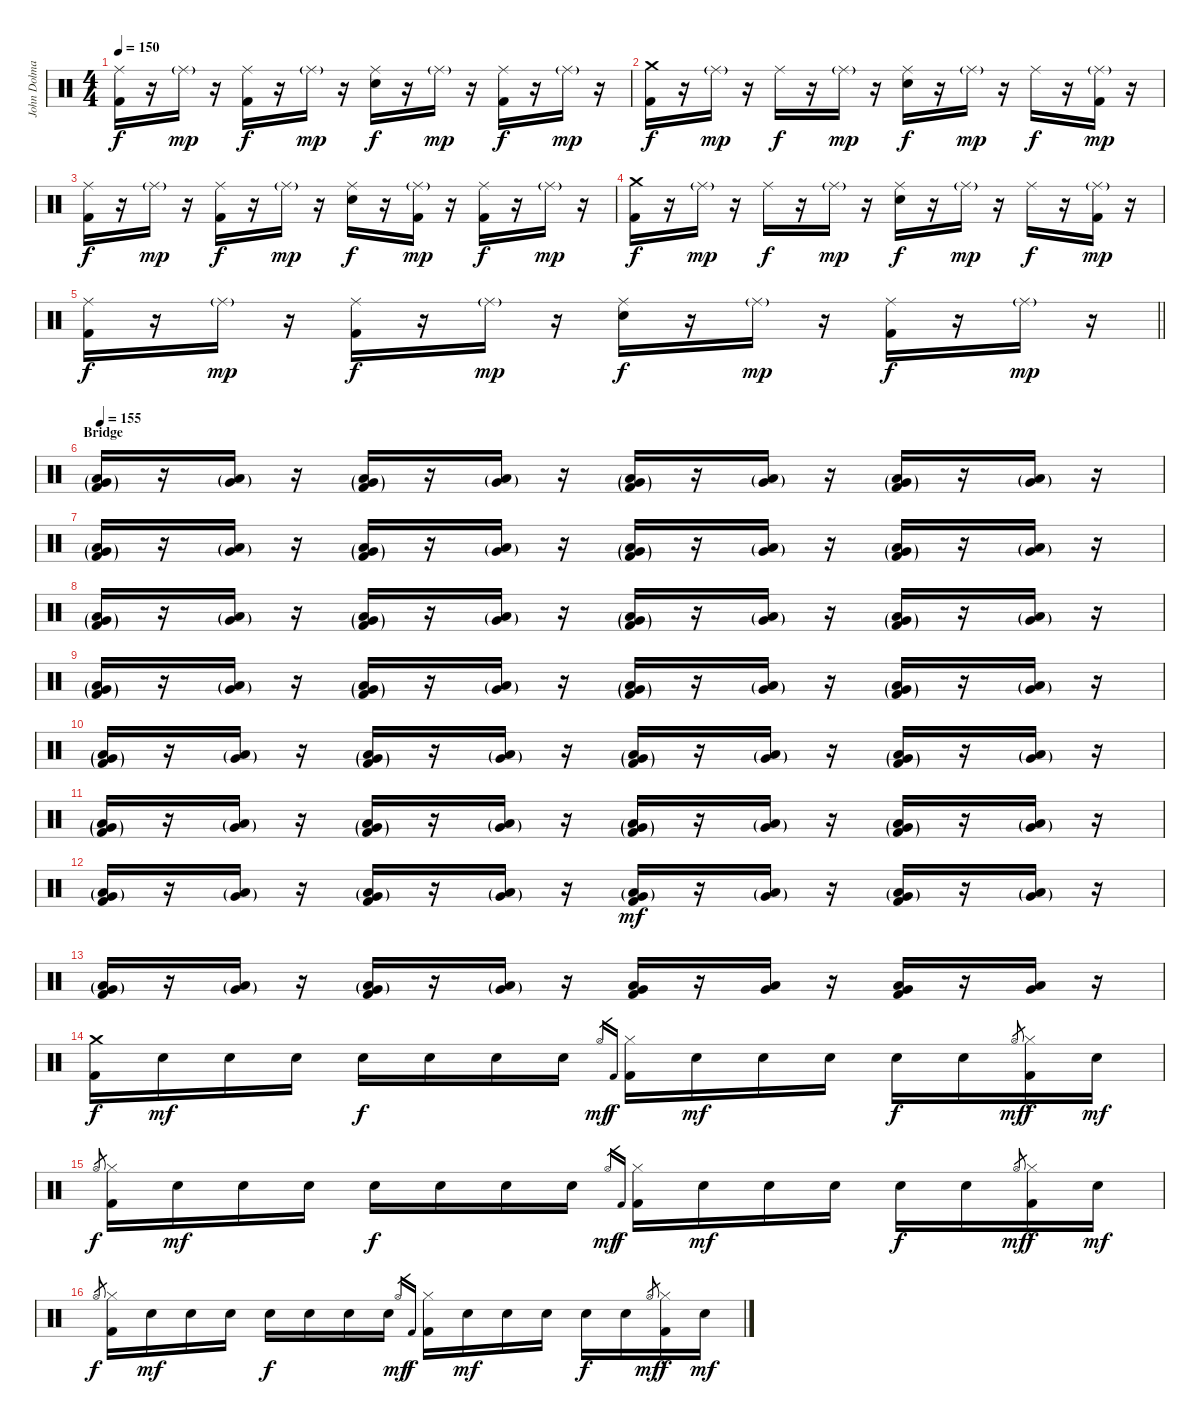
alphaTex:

\track ("John Dolmayan" "John Dolma") {instrument percussion}
\staff {score}
\articulation defaults
\ts (4 4)
\tempo 150
\clef neutral
\ks c
("Ride (middle)" "Kick (hit) 2").16{dy f} r.16 "Ride (middle)"{g}.16{dy mp} r.16 ("Ride (middle)" "Kick (hit) 2").16{dy f} r.16 "Ride (middle)"{g}.16{dy mp} r.16 ("Ride (middle)" "Electric Snare (hit)").16{dy f} r.16 "Ride (middle)"{g}.16{dy mp} r.16 ("Ride (middle)" "Kick (hit) 2").16{dy f} r.16 "Ride (middle)"{g}.16{dy mp} r.16 |
("Crash medium (hit)" "Kick (hit) 2").16{dy f} r.16 "Ride (middle)"{g}.16{dy mp} r.16 "Ride (middle)".16{dy f} r.16 "Ride (middle)"{g}.16{dy mp} r.16 ("Ride (middle)" "Electric Snare (hit)").16{dy f} r.16 "Ride (middle)"{g}.16{dy mp} r.16 "Ride (middle)".16{dy f} r.16 ("Ride (middle)"{g} "Kick (hit) 2").16{dy mp} r.16 |
("Ride (middle)" "Kick (hit) 2").16{dy f} r.16 "Ride (middle)"{g}.16{dy mp} r.16 ("Ride (middle)" "Kick (hit) 2").16{dy f} r.16 "Ride (middle)"{g}.16{dy mp} r.16 ("Ride (middle)" "Electric Snare (hit)").16{dy f} r.16 ("Ride (middle)"{g} "Kick (hit) 2").16{dy mp} r.16 ("Ride (middle)" "Kick (hit) 2").16{dy f} r.16 "Ride (middle)"{g}.16{dy mp} r.16 |
("Crash medium (hit)" "Kick (hit) 2").16{dy f} r.16 "Ride (middle)"{g}.16{dy mp} r.16 "Ride (middle)".16{dy f} r.16 "Ride (middle)"{g}.16{dy mp} r.16 ("Ride (middle)" "Electric Snare (hit)").16{dy f} r.16 "Ride (middle)"{g}.16{dy mp} r.16 "Ride (middle)".16{dy f} r.16 ("Ride (middle)"{g} "Kick (hit) 2").16{dy mp} r.16 |
\barLineRight lightlight
("Ride (middle)" "Kick (hit) 2").16{dy f} r.16 "Ride (middle)"{g}.16{dy mp} r.16 ("Ride (middle)" "Kick (hit) 2").16{dy f} r.16 "Ride (middle)"{g}.16{dy mp} r.16 ("Ride (middle)" "Electric Snare (hit)").16{dy f} r.16 "Ride (middle)"{g}.16{dy mp} r.16 ("Ride (middle)" "Kick (hit) 2").16{dy f} r.16 "Ride (middle)"{g}.16{dy mp} r.16 |
\section ("" "Bridge")
\tempo 150
\tempo 155
("Low Tom (hit)"{g} "Very Low Tom (hit)"{g} "Kick (hit) 2"{g}).16 r.16 ("Low Tom (hit)"{g} "Very Low Tom (hit)"{g}).16 r.16 ("Low Tom (hit)"{g} "Very Low Tom (hit)"{g} "Kick (hit) 2"{g}).16 r.16 ("Low Tom (hit)"{g} "Very Low Tom (hit)"{g}).16 r.16 ("Low Tom (hit)"{g} "Very Low Tom (hit)"{g} "Kick (hit) 2"{g}).16 r.16 ("Low Tom (hit)"{g} "Very Low Tom (hit)"{g}).16 r.16 ("Low Tom (hit)"{g} "Very Low Tom (hit)"{g} "Kick (hit) 2"{g}).16 r.16 ("Low Tom (hit)"{g} "Very Low Tom (hit)"{g}).16 r.16 |
("Low Tom (hit)"{g} "Very Low Tom (hit)"{g} "Kick (hit) 2"{g}).16 r.16 ("Low Tom (hit)"{g} "Very Low Tom (hit)"{g}).16 r.16 ("Low Tom (hit)"{g} "Very Low Tom (hit)"{g} "Kick (hit) 2"{g}).16 r.16 ("Low Tom (hit)"{g} "Very Low Tom (hit)"{g}).16 r.16 ("Low Tom (hit)"{g} "Very Low Tom (hit)"{g} "Kick (hit) 2"{g}).16 r.16 ("Low Tom (hit)"{g} "Very Low Tom (hit)"{g}).16 r.16 ("Low Tom (hit)"{g} "Very Low Tom (hit)"{g} "Kick (hit) 2"{g}).16 r.16 ("Low Tom (hit)"{g} "Very Low Tom (hit)"{g}).16 r.16 |
("Low Tom (hit)"{g} "Very Low Tom (hit)"{g} "Kick (hit) 2"{g}).16 r.16 ("Low Tom (hit)"{g} "Very Low Tom (hit)"{g}).16 r.16 ("Low Tom (hit)"{g} "Very Low Tom (hit)"{g} "Kick (hit) 2"{g}).16 r.16 ("Low Tom (hit)"{g} "Very Low Tom (hit)"{g}).16 r.16 ("Low Tom (hit)"{g} "Very Low Tom (hit)"{g} "Kick (hit) 2"{g}).16 r.16 ("Low Tom (hit)"{g} "Very Low Tom (hit)"{g}).16 r.16 ("Low Tom (hit)"{g} "Very Low Tom (hit)"{g} "Kick (hit) 2"{g}).16 r.16 ("Low Tom (hit)"{g} "Very Low Tom (hit)"{g}).16 r.16 |
("Low Tom (hit)"{g} "Very Low Tom (hit)"{g} "Kick (hit) 2"{g}).16 r.16 ("Low Tom (hit)"{g} "Very Low Tom (hit)"{g}).16 r.16 ("Low Tom (hit)"{g} "Very Low Tom (hit)"{g} "Kick (hit) 2"{g}).16 r.16 ("Low Tom (hit)"{g} "Very Low Tom (hit)"{g}).16 r.16 ("Low Tom (hit)"{g} "Very Low Tom (hit)"{g} "Kick (hit) 2"{g}).16 r.16 ("Low Tom (hit)"{g} "Very Low Tom (hit)"{g}).16 r.16 ("Low Tom (hit)"{g} "Very Low Tom (hit)"{g} "Kick (hit) 2"{g}).16 r.16 ("Low Tom (hit)"{g} "Very Low Tom (hit)"{g}).16 r.16 |
("Low Tom (hit)"{g} "Very Low Tom (hit)"{g} "Kick (hit) 2"{g}).16 r.16 ("Low Tom (hit)"{g} "Very Low Tom (hit)"{g}).16 r.16 ("Low Tom (hit)"{g} "Very Low Tom (hit)"{g} "Kick (hit) 2"{g}).16 r.16 ("Low Tom (hit)"{g} "Very Low Tom (hit)"{g}).16 r.16 ("Low Tom (hit)"{g} "Very Low Tom (hit)"{g} "Kick (hit) 2"{g}).16 r.16 ("Low Tom (hit)"{g} "Very Low Tom (hit)"{g}).16 r.16 ("Low Tom (hit)"{g} "Very Low Tom (hit)"{g} "Kick (hit) 2"{g}).16 r.16 ("Low Tom (hit)"{g} "Very Low Tom (hit)"{g}).16 r.16 |
("Low Tom (hit)"{g} "Very Low Tom (hit)"{g} "Kick (hit) 2"{g}).16 r.16 ("Low Tom (hit)"{g} "Very Low Tom (hit)"{g}).16 r.16 ("Low Tom (hit)"{g} "Very Low Tom (hit)"{g} "Kick (hit) 2"{g}).16 r.16 ("Low Tom (hit)"{g} "Very Low Tom (hit)"{g}).16 r.16 ("Low Tom (hit)"{g} "Very Low Tom (hit)"{g} "Kick (hit) 2"{g}).16 r.16 ("Low Tom (hit)"{g} "Very Low Tom (hit)"{g}).16 r.16 ("Low Tom (hit)"{g} "Very Low Tom (hit)"{g} "Kick (hit) 2"{g}).16 r.16 ("Low Tom (hit)"{g} "Very Low Tom (hit)"{g}).16 r.16 |
("Low Tom (hit)"{g} "Very Low Tom (hit)"{g} "Kick (hit) 2").16 r.16 ("Low Tom (hit)"{g} "Very Low Tom (hit)"{g}).16 r.16 ("Low Tom (hit)"{g} "Very Low Tom (hit)"{g} "Kick (hit) 2").16 r.16 ("Low Tom (hit)"{g} "Very Low Tom (hit)"{g}).16 r.16 ("Low Tom (hit)"{g} "Very Low Tom (hit)"{g} "Kick (hit) 2").16{dy mf} r.16 ("Low Tom (hit)"{g} "Very Low Tom (hit)"{g}).16 r.16 ("Low Tom (hit)"{g} "Very Low Tom (hit)"{g} "Kick (hit) 2").16 r.16 ("Low Tom (hit)"{g} "Very Low Tom (hit)"{g}).16 r.16 |
("Low Tom (hit)"{g} "Very Low Tom (hit)"{g} "Kick (hit) 2").16 r.16 ("Low Tom (hit)"{g} "Very Low Tom (hit)"{g}).16 r.16 ("Low Tom (hit)"{g} "Very Low Tom (hit)"{g} "Kick (hit) 2").16 r.16 ("Low Tom (hit)"{g} "Very Low Tom (hit)"{g}).16 r.16 ("Low Tom (hit)" "Very Low Tom (hit)" "Kick (hit) 2").16 r.16 ("Low Tom (hit)" "Very Low Tom (hit)").16 r.16 ("Low Tom (hit)" "Very Low Tom (hit)" "Kick (hit) 2").16 r.16 ("Low Tom (hit)" "Very Low Tom (hit)").16 r.16 |
("Crash medium (hit)" "Kick (hit) 2").16{dy f} "Electric Snare (hit)".16{dy mf} "Electric Snare (hit)".16 "Electric Snare (hit)".16 "Electric Snare (hit)".16{dy f} "Electric Snare (hit)".16 "Electric Snare (hit)".16 "Electric Snare (hit)".16 "Hi-Hat (open)".16{gr dy mf} "Kick (hit) 2".16{gr dy f} ("Hi-Hat (closed)" "Kick (hit) 2").16 "Electric Snare (hit)".16{dy mf} "Electric Snare (hit)".16 "Electric Snare (hit)".16 "Electric Snare (hit)".16{dy f} "Electric Snare (hit)".16 "Hi-Hat (open)".8{gr dy mf} ("Hi-Hat (closed)" "Kick (hit) 2").16{dy f} "Electric Snare (hit)".16{dy mf} |
"Hi-Hat (open)".8{gr dy f} ("Hi-Hat (closed)" "Kick (hit) 2").16 "Electric Snare (hit)".16{dy mf} "Electric Snare (hit)".16 "Electric Snare (hit)".16 "Electric Snare (hit)".16{dy f} "Electric Snare (hit)".16 "Electric Snare (hit)".16 "Electric Snare (hit)".16 "Hi-Hat (open)".16{gr dy mf} "Kick (hit) 2".16{gr dy f} ("Hi-Hat (closed)" "Kick (hit) 2").16 "Electric Snare (hit)".16{dy mf} "Electric Snare (hit)".16 "Electric Snare (hit)".16 "Electric Snare (hit)".16{dy f} "Electric Snare (hit)".16 "Hi-Hat (open)".8{gr dy mf} ("Hi-Hat (closed)" "Kick (hit) 2").16{dy f} "Electric Snare (hit)".16{dy mf} |
"Hi-Hat (open)".8{gr dy f} ("Hi-Hat (closed)" "Kick (hit) 2").16 "Electric Snare (hit)".16{dy mf} "Electric Snare (hit)".16 "Electric Snare (hit)".16 "Electric Snare (hit)".16{dy f} "Electric Snare (hit)".16 "Electric Snare (hit)".16 "Electric Snare (hit)".16 "Hi-Hat (open)".16{gr dy mf} "Kick (hit) 2".16{gr dy f} ("Hi-Hat (closed)" "Kick (hit) 2").16 "Electric Snare (hit)".16{dy mf} "Electric Snare (hit)".16 "Electric Snare (hit)".16 "Electric Snare (hit)".16{dy f} "Electric Snare (hit)".16 "Hi-Hat (open)".8{gr dy mf} ("Hi-Hat (closed)" "Kick (hit) 2").16{dy f} "Electric Snare (hit)".16{dy mf}
